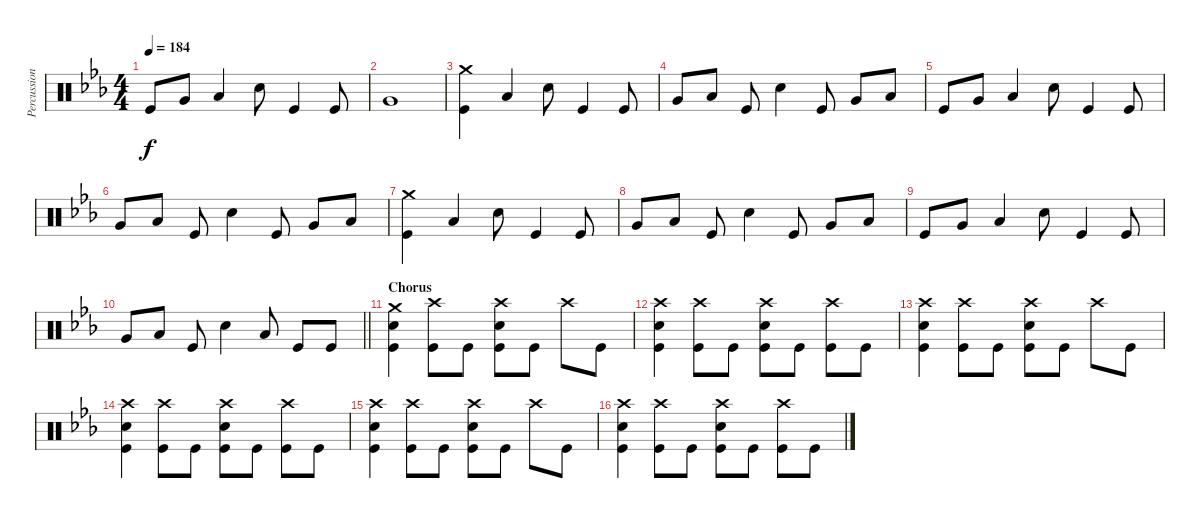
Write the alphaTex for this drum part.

\track ("Percussion" "Percussion") {instrument percussion}
\staff {score}
\articulation defaults
\ts (4 4)
\tempo 184
\clef neutral
\ks eb "Kick (hit)".8{dy f} "Very Low Tom (hit)".8 "Low Floor Tom (hit)".4 "Electric Snare (hit)".8 "Kick (hit)".4 "Kick (hit)".8
|
"Very Low Tom (hit)".1 |
("Crash medium (hit)" "Kick (hit)").4 "Low Floor Tom (hit)".4 "Electric Snare (hit)".8 "Kick (hit)".4 "Kick (hit)".8 |
"Very Low Tom (hit)".8 "Low Floor Tom (hit)".8 "Kick (hit)".8 "Electric Snare (hit)".4 "Kick (hit)".8 "Very Low Tom (hit)".8 "Low Floor Tom (hit)".8 |
"Kick (hit)".8 "Very Low Tom (hit)".8 "Low Floor Tom (hit)".4 "Electric Snare (hit)".8 "Kick (hit)".4 "Kick (hit)".8 |
"Very Low Tom (hit)".8 "Low Floor Tom (hit)".8 "Kick (hit)".8 "Electric Snare (hit)".4 "Kick (hit)".8 "Very Low Tom (hit)".8 "Low Floor Tom (hit)".8 |
("Crash medium (hit)" "Kick (hit)").4 "Low Floor Tom (hit)".4 "Electric Snare (hit)".8 "Kick (hit)".4 "Kick (hit)".8 |
"Very Low Tom (hit)".8 "Low Floor Tom (hit)".8 "Kick (hit)".8 "Electric Snare (hit)".4 "Kick (hit)".8 "Very Low Tom (hit)".8 "Low Floor Tom (hit)".8 |
"Kick (hit)".8 "Very Low Tom (hit)".8 "Low Floor Tom (hit)".4 "Electric Snare (hit)".8 "Kick (hit)".4 "Kick (hit)".8 |
\barLineRight lightlight "Very Low Tom (hit)".8 "Low Floor Tom (hit)".8 "Kick (hit)".8 "Electric Snare (hit)".4 "Low Floor Tom (hit)".8 "Kick (hit)".8 "Kick (hit)".8
|
\section ("" "Chorus")
("Crash medium (hit)" "Electric Snare (hit)" "Kick (hit)").4 ("Crash high (hit)" "Kick (hit)").8 "Kick (hit)".8 ("Crash high (hit)" "Electric Snare (hit)" "Kick (hit)").8 "Kick (hit)".8 "Crash high (hit)".8 "Kick (hit)".8 |
("Crash high (hit)" "Electric Snare (hit)" "Kick (hit)").4 ("Crash high (hit)" "Kick (hit)").8 "Kick (hit)".8 ("Crash high (hit)" "Electric Snare (hit)" "Kick (hit)").8 "Kick (hit)".8 ("Crash high (hit)" "Kick (hit)").8 "Kick (hit)".8 |
("Crash high (hit)" "Electric Snare (hit)" "Kick (hit)").4 ("Crash high (hit)" "Kick (hit)").8 "Kick (hit)".8 ("Crash high (hit)" "Electric Snare (hit)" "Kick (hit)").8 "Kick (hit)".8 "Crash high (hit)".8 "Kick (hit)".8 |
("Crash high (hit)" "Electric Snare (hit)" "Kick (hit)").4 ("Crash high (hit)" "Kick (hit)").8 "Kick (hit)".8 ("Crash high (hit)" "Electric Snare (hit)" "Kick (hit)").8 "Kick (hit)".8 ("Crash high (hit)" "Kick (hit)").8 "Kick (hit)".8 |
("Crash high (hit)" "Electric Snare (hit)" "Kick (hit)").4 ("Crash high (hit)" "Kick (hit)").8 "Kick (hit)".8 ("Crash high (hit)" "Electric Snare (hit)" "Kick (hit)").8 "Kick (hit)".8 "Crash high (hit)".8 "Kick (hit)".8 |
("Crash high (hit)" "Electric Snare (hit)" "Kick (hit)").4 ("Crash high (hit)" "Kick (hit)").8 "Kick (hit)".8 ("Crash high (hit)" "Electric Snare (hit)" "Kick (hit)").8 "Kick (hit)".8 ("Crash high (hit)" "Kick (hit)").8 "Kick (hit)".8
